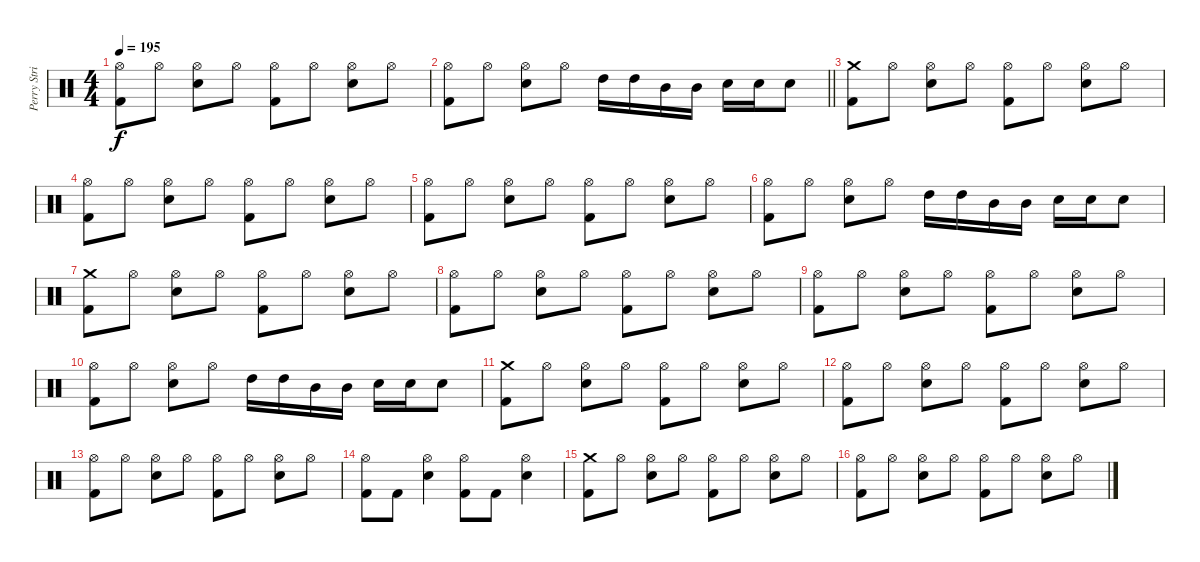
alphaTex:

\track ("Perry Strickland" "Perry Stri") {instrument percussion}
\staff {score}
\articulation defaults
\ts (4 4)
\tempo 195
\clef neutral
\ks c
("Hi-Hat (open)" "Kick (hit) 2").8{dy f} "Hi-Hat (open)".8 ("Hi-Hat (open)" "Electric Snare (hit)").8 "Hi-Hat (open)".8 ("Hi-Hat (open)" "Kick (hit) 2").8 "Hi-Hat (open)".8 ("Hi-Hat (open)" "Electric Snare (hit)").8 "Hi-Hat (open)".8 |
\barLineRight lightlight
("Hi-Hat (open)" "Kick (hit) 2").8 "Hi-Hat (open)".8 ("Hi-Hat (open)" "Electric Snare (hit)").8 "Hi-Hat (open)".8 "High Tom (hit)".16 "High Tom (hit)".16 "Mid Tom (hit)".16 "Mid Tom (hit)".16 "Electric Snare (hit)".16 "Electric Snare (hit)".16 "Electric Snare (hit)".8 |
("Crash medium (hit)" "Kick (hit) 2").8 "Hi-Hat (open)".8 ("Hi-Hat (open)" "Electric Snare (hit)").8 "Hi-Hat (open)".8 ("Hi-Hat (open)" "Kick (hit) 2").8 "Hi-Hat (open)".8 ("Hi-Hat (open)" "Electric Snare (hit)").8 "Hi-Hat (open)".8 |
("Hi-Hat (open)" "Kick (hit) 2").8 "Hi-Hat (open)".8 ("Hi-Hat (open)" "Electric Snare (hit)").8 "Hi-Hat (open)".8 ("Hi-Hat (open)" "Kick (hit) 2").8 "Hi-Hat (open)".8 ("Hi-Hat (open)" "Electric Snare (hit)").8 "Hi-Hat (open)".8 |
("Hi-Hat (open)" "Kick (hit) 2").8 "Hi-Hat (open)".8 ("Hi-Hat (open)" "Electric Snare (hit)").8 "Hi-Hat (open)".8 ("Hi-Hat (open)" "Kick (hit) 2").8 "Hi-Hat (open)".8 ("Hi-Hat (open)" "Electric Snare (hit)").8 "Hi-Hat (open)".8 |
("Hi-Hat (open)" "Kick (hit) 2").8 "Hi-Hat (open)".8 ("Hi-Hat (open)" "Electric Snare (hit)").8 "Hi-Hat (open)".8 "High Tom (hit)".16 "High Tom (hit)".16 "Mid Tom (hit)".16 "Mid Tom (hit)".16 "Electric Snare (hit)".16 "Electric Snare (hit)".16 "Electric Snare (hit)".8 |
("Crash medium (hit)" "Kick (hit) 2").8 "Hi-Hat (open)".8 ("Hi-Hat (open)" "Electric Snare (hit)").8 "Hi-Hat (open)".8 ("Hi-Hat (open)" "Kick (hit) 2").8 "Hi-Hat (open)".8 ("Hi-Hat (open)" "Electric Snare (hit)").8 "Hi-Hat (open)".8 |
("Hi-Hat (open)" "Kick (hit) 2").8 "Hi-Hat (open)".8 ("Hi-Hat (open)" "Electric Snare (hit)").8 "Hi-Hat (open)".8 ("Hi-Hat (open)" "Kick (hit) 2").8 "Hi-Hat (open)".8 ("Hi-Hat (open)" "Electric Snare (hit)").8 "Hi-Hat (open)".8 |
("Hi-Hat (open)" "Kick (hit) 2").8 "Hi-Hat (open)".8 ("Hi-Hat (open)" "Electric Snare (hit)").8 "Hi-Hat (open)".8 ("Hi-Hat (open)" "Kick (hit) 2").8 "Hi-Hat (open)".8 ("Hi-Hat (open)" "Electric Snare (hit)").8 "Hi-Hat (open)".8 |
("Hi-Hat (open)" "Kick (hit) 2").8 "Hi-Hat (open)".8 ("Hi-Hat (open)" "Electric Snare (hit)").8 "Hi-Hat (open)".8 "High Tom (hit)".16 "High Tom (hit)".16 "Mid Tom (hit)".16 "Mid Tom (hit)".16 "Electric Snare (hit)".16 "Electric Snare (hit)".16 "Electric Snare (hit)".8 |
("Crash medium (hit)" "Kick (hit) 2").8 "Hi-Hat (open)".8 ("Hi-Hat (open)" "Electric Snare (hit)").8 "Hi-Hat (open)".8 ("Hi-Hat (open)" "Kick (hit) 2").8 "Hi-Hat (open)".8 ("Hi-Hat (open)" "Electric Snare (hit)").8 "Hi-Hat (open)".8 |
("Hi-Hat (open)" "Kick (hit) 2").8 "Hi-Hat (open)".8 ("Hi-Hat (open)" "Electric Snare (hit)").8 "Hi-Hat (open)".8 ("Hi-Hat (open)" "Kick (hit) 2").8 "Hi-Hat (open)".8 ("Hi-Hat (open)" "Electric Snare (hit)").8 "Hi-Hat (open)".8 |
("Hi-Hat (open)" "Kick (hit) 2").8 "Hi-Hat (open)".8 ("Hi-Hat (open)" "Electric Snare (hit)").8 "Hi-Hat (open)".8 ("Hi-Hat (open)" "Kick (hit) 2").8 "Hi-Hat (open)".8 ("Hi-Hat (open)" "Electric Snare (hit)").8 "Hi-Hat (open)".8 |
("Hi-Hat (open)" "Kick (hit) 2").8 "Kick (hit) 2".8 ("Hi-Hat (open)" "Electric Snare (hit)").4 ("Hi-Hat (open)" "Kick (hit) 2").8 "Kick (hit) 2".8 ("Hi-Hat (open)" "Electric Snare (hit)").4 |
("Crash medium (hit)" "Kick (hit) 2").8 "Hi-Hat (open)".8 ("Hi-Hat (open)" "Electric Snare (hit)").8 "Hi-Hat (open)".8 ("Hi-Hat (open)" "Kick (hit) 2").8 "Hi-Hat (open)".8 ("Hi-Hat (open)" "Electric Snare (hit)").8 "Hi-Hat (open)".8 |
("Hi-Hat (open)" "Kick (hit) 2").8 "Hi-Hat (open)".8 ("Hi-Hat (open)" "Electric Snare (hit)").8 "Hi-Hat (open)".8 ("Hi-Hat (open)" "Kick (hit) 2").8 "Hi-Hat (open)".8 ("Hi-Hat (open)" "Electric Snare (hit)").8 "Hi-Hat (open)".8
